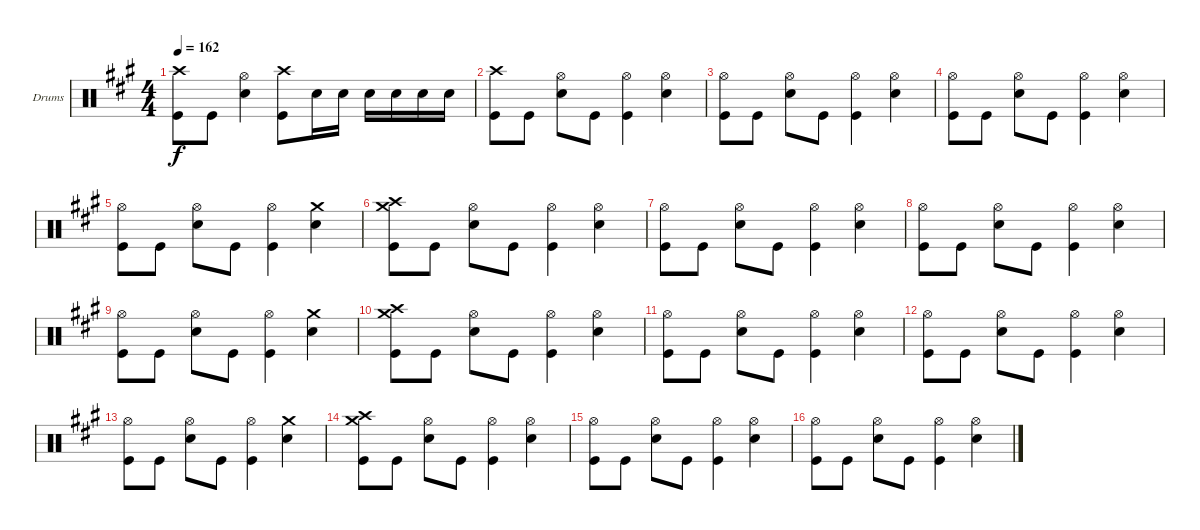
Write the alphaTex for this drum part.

\defaultSystemsLayout 4
\bracketExtendMode groupsimilarinstruments
\firstSystemTrackNameOrientation horizontal
\otherSystemsTrackNameOrientation horizontal
\track ("Drums" "Drums") {instrument percussion}
\staff {score}
\articulation defaults
\ts (4 4)
\tempo 162
\clef neutral
\scale
1.05801
\ks a
("Crash high (hit)" "Kick (hit)").8{dy f} "Kick (hit)".8 ("Hi-Hat (open)" "Snare (hit) 2").4 ("Crash high (hit)" "Kick (hit)").8 "Snare (hit) 2".16 "Snare (hit) 2".16 "Snare (hit) 2".16 "Snare (hit) 2".16 "Snare (hit) 2".16 "Snare (hit) 2".16 |
\scale
0.941992 ("Crash high (hit)" "Kick (hit)").8 "Kick (hit)".8 ("Hi-Hat (open)" "Snare (hit) 2").8 "Kick (hit)".8 ("Hi-Hat (open)" "Kick (hit)").4 ("Hi-Hat (open)" "Snare (hit) 2").4 |
\scale
1.05801 ("Hi-Hat (open)" "Kick (hit)").8 "Kick (hit)".8 ("Hi-Hat (open)" "Snare (hit) 2").8 "Kick (hit)".8 ("Hi-Hat (open)" "Kick (hit)").4 ("Hi-Hat (open)" "Snare (hit) 2").4 |
\scale
0.941992 ("Hi-Hat (open)" "Kick (hit)").8 "Kick (hit)".8 ("Hi-Hat (open)" "Snare (hit) 2").8 "Kick (hit)".8 ("Hi-Hat (open)" "Kick (hit)").4 ("Hi-Hat (open)" "Snare (hit) 2").4 |
\scale
1.05801 ("Hi-Hat (open)" "Kick (hit)").8 "Kick (hit)".8 ("Hi-Hat (open)" "Snare (hit) 2").8 "Kick (hit)".8 ("Hi-Hat (open)" "Kick (hit)").4 ("Crash medium (hit)" "Snare (hit) 2").4 |
\scale
0.941992 ("Crash medium (hit)" "Crash high (hit)" "Kick (hit)").8 "Kick (hit)".8 ("Hi-Hat (open)" "Snare (hit) 2").8 "Kick (hit)".8 ("Hi-Hat (open)" "Kick (hit)").4 ("Hi-Hat (open)" "Snare (hit) 2").4 |
\scale
1.05801 ("Hi-Hat (open)" "Kick (hit)").8 "Kick (hit)".8 ("Hi-Hat (open)" "Snare (hit) 2").8 "Kick (hit)".8 ("Hi-Hat (open)" "Kick (hit)").4 ("Hi-Hat (open)" "Snare (hit) 2").4 |
\scale
0.941992 ("Hi-Hat (open)" "Kick (hit)").8 "Kick (hit)".8 ("Hi-Hat (open)" "Snare (hit) 2").8 "Kick (hit)".8 ("Hi-Hat (open)" "Kick (hit)").4 ("Hi-Hat (open)" "Snare (hit) 2").4 |
\scale
1.05801 ("Hi-Hat (open)" "Kick (hit)").8 "Kick (hit)".8 ("Hi-Hat (open)" "Snare (hit) 2").8 "Kick (hit)".8 ("Hi-Hat (open)" "Kick (hit)").4 ("Crash medium (hit)" "Snare (hit) 2").4 |
\scale
0.941992 ("Crash medium (hit)" "Crash high (hit)" "Kick (hit)").8 "Kick (hit)".8 ("Hi-Hat (open)" "Snare (hit) 2").8 "Kick (hit)".8 ("Hi-Hat (open)" "Kick (hit)").4 ("Hi-Hat (open)" "Snare (hit) 2").4 |
\scale
1.05801 ("Hi-Hat (open)" "Kick (hit)").8 "Kick (hit)".8 ("Hi-Hat (open)" "Snare (hit) 2").8 "Kick (hit)".8 ("Hi-Hat (open)" "Kick (hit)").4 ("Hi-Hat (open)" "Snare (hit) 2").4 |
\scale
0.941992 ("Hi-Hat (open)" "Kick (hit)").8 "Kick (hit)".8 ("Hi-Hat (open)" "Snare (hit) 2").8 "Kick (hit)".8 ("Hi-Hat (open)" "Kick (hit)").4 ("Hi-Hat (open)" "Snare (hit) 2").4 |
\scale
1.05801 ("Hi-Hat (open)" "Kick (hit)").8 "Kick (hit)".8 ("Hi-Hat (open)" "Snare (hit) 2").8 "Kick (hit)".8 ("Hi-Hat (open)" "Kick (hit)").4 ("Crash medium (hit)" "Snare (hit) 2").4 |
\scale
0.941992 ("Crash medium (hit)" "Crash high (hit)" "Kick (hit)").8 "Kick (hit)".8 ("Hi-Hat (open)" "Snare (hit) 2").8 "Kick (hit)".8 ("Hi-Hat (open)" "Kick (hit)").4 ("Hi-Hat (open)" "Snare (hit) 2").4 |
\scale
1.05801 ("Hi-Hat (open)" "Kick (hit)").8 "Kick (hit)".8 ("Hi-Hat (open)" "Snare (hit) 2").8 "Kick (hit)".8 ("Hi-Hat (open)" "Kick (hit)").4 ("Hi-Hat (open)" "Snare (hit) 2").4 |
\scale
0.941992 ("Hi-Hat (open)" "Kick (hit)").8 "Kick (hit)".8 ("Hi-Hat (open)" "Snare (hit) 2").8 "Kick (hit)".8 ("Hi-Hat (open)" "Kick (hit)").4 ("Hi-Hat (open)" "Snare (hit) 2").4
